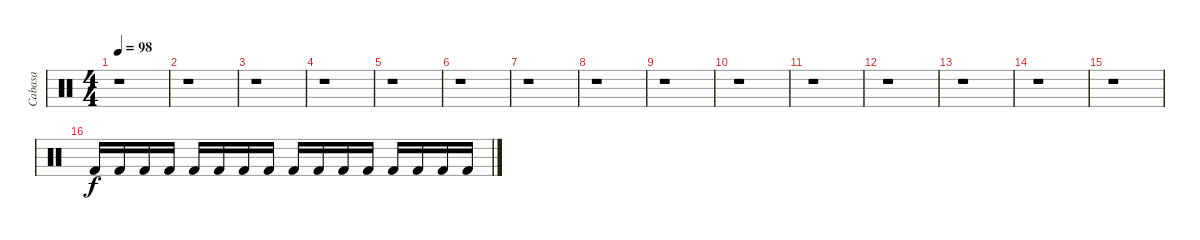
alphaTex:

\track ("Cabasa" "Cabasa") {instrument percussion}
\staff {score}
\articulation defaults
\ts (4 4)
\tempo 98
\clef neutral
\ks c
r.1{dy f} |
r.1 |
r.1 |
r.1 |
r.1 |
r.1 |
r.1 |
r.1 |
r.1 |
r.1 |
r.1 |
r.1 |
r.1 |
r.1 |
r.1 |
"Kick (hit) 2".16 "Kick (hit) 2".16 "Kick (hit) 2".16 "Kick (hit) 2".16 "Kick (hit) 2".16 "Kick (hit) 2".16 "Kick (hit) 2".16 "Kick (hit) 2".16 "Kick (hit) 2".16 "Kick (hit) 2".16 "Kick (hit) 2".16 "Kick (hit) 2".16 "Kick (hit) 2".16 "Kick (hit) 2".16 "Kick (hit) 2".16 "Kick (hit) 2".16
